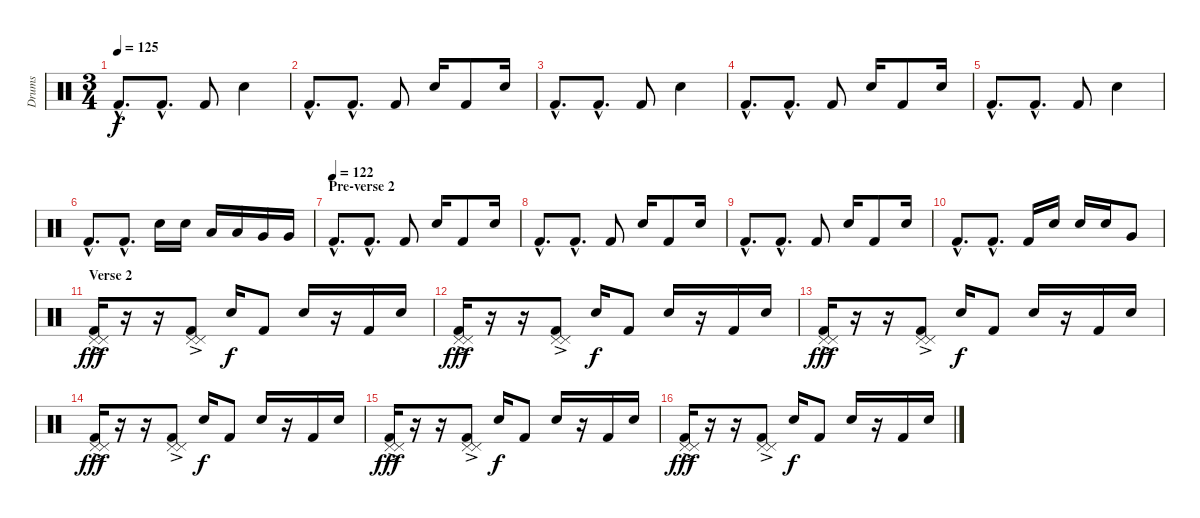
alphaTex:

\track ("Drums" "Drums") {instrument percussion}
\staff {score}
\articulation defaults
\ts (3 4)
\tempo 125
\clef neutral
\ks c "Kick (hit) 2"{hac}.8{d dy f} "Kick (hit) 2"{hac}.8{d} "Kick (hit) 2".8 "Electric Snare (hit)".4
|
"Kick (hit) 2"{hac}.8{d} "Kick (hit) 2"{hac}.8{d} "Kick (hit) 2".8 "Electric Snare (hit)".16 "Kick (hit) 2".8 "Electric Snare (hit)".16 |
"Kick (hit) 2"{hac}.8{d} "Kick (hit) 2"{hac}.8{d} "Kick (hit) 2".8 "Electric Snare (hit)".4 |
"Kick (hit) 2"{hac}.8{d} "Kick (hit) 2"{hac}.8{d} "Kick (hit) 2".8 "Electric Snare (hit)".16 "Kick (hit) 2".8 "Electric Snare (hit)".16 |
"Kick (hit) 2"{hac}.8{d} "Kick (hit) 2"{hac}.8{d} "Kick (hit) 2".8 "Electric Snare (hit)".4 |
"Kick (hit) 2"{hac}.8{d} "Kick (hit) 2"{hac}.8{d} "Electric Snare (hit)".16 "Electric Snare (hit)".16 "Low Tom (hit)".16 "Low Tom (hit)".16 "Very Low Tom (hit)".16 "Very Low Tom (hit)".16 |
\section ("" "Pre-verse 2")
\tempo (122)
"Kick (hit) 2"{hac}.8{d} "Kick (hit) 2"{hac}.8{d} "Kick (hit) 2".8 "Electric Snare (hit)".16 "Kick (hit) 2".8 "Electric Snare (hit)".16 |
"Kick (hit) 2"{hac}.8{d} "Kick (hit) 2"{hac}.8{d} "Kick (hit) 2".8 "Electric Snare (hit)".16 "Kick (hit) 2".8 "Electric Snare (hit)".16 |
"Kick (hit) 2"{hac}.8{d} "Kick (hit) 2"{hac}.8{d} "Kick (hit) 2".8 "Electric Snare (hit)".16 "Kick (hit) 2".8 "Electric Snare (hit)".16 |
"Kick (hit) 2"{hac}.8{d} "Kick (hit) 2"{hac}.8{d} "Kick (hit) 2".16 "Electric Snare (hit)".16 "Electric Snare (hit)".16 "Electric Snare (hit)".16 "Very Low Tom (hit)".8 |
\section ("" "Verse 2")
("Pedal Hi-Hat (hit)"{ac} "Pedal Hi-Hat (hit)"{ac} "Kick (hit) 2").16{dy fff} r.16 r.16 ("Pedal Hi-Hat (hit)"{ac} "Pedal Hi-Hat (hit)"{ac} "Kick (hit) 2").8 "Electric Snare (hit)".16{dy f} "Kick (hit) 2".8 "Electric Snare (hit)".16 r.16 "Kick (hit) 2".16 "Electric Snare (hit)".16 |
("Pedal Hi-Hat (hit)"{ac} "Pedal Hi-Hat (hit)"{ac} "Kick (hit) 2").16{dy fff} r.16 r.16 ("Pedal Hi-Hat (hit)"{ac} "Pedal Hi-Hat (hit)"{ac} "Kick (hit) 2").8 "Electric Snare (hit)".16{dy f} "Kick (hit) 2".8 "Electric Snare (hit)".16 r.16 "Kick (hit) 2".16 "Electric Snare (hit)".16 |
("Pedal Hi-Hat (hit)"{ac} "Pedal Hi-Hat (hit)"{ac} "Kick (hit) 2").16{dy fff} r.16 r.16 ("Pedal Hi-Hat (hit)"{ac} "Pedal Hi-Hat (hit)"{ac} "Kick (hit) 2").8 "Electric Snare (hit)".16{dy f} "Kick (hit) 2".8 "Electric Snare (hit)".16 r.16 "Kick (hit) 2".16 "Electric Snare (hit)".16 |
("Pedal Hi-Hat (hit)"{ac} "Pedal Hi-Hat (hit)"{ac} "Kick (hit) 2").16{dy fff} r.16 r.16 ("Pedal Hi-Hat (hit)"{ac} "Pedal Hi-Hat (hit)"{ac} "Kick (hit) 2").8 "Electric Snare (hit)".16{dy f} "Kick (hit) 2".8 "Electric Snare (hit)".16 r.16 "Kick (hit) 2".16 "Electric Snare (hit)".16 |
("Pedal Hi-Hat (hit)"{ac} "Pedal Hi-Hat (hit)"{ac} "Kick (hit) 2").16{dy fff} r.16 r.16 ("Pedal Hi-Hat (hit)"{ac} "Pedal Hi-Hat (hit)"{ac} "Kick (hit) 2").8 "Electric Snare (hit)".16{dy f} "Kick (hit) 2".8 "Electric Snare (hit)".16 r.16 "Kick (hit) 2".16 "Electric Snare (hit)".16 |
("Pedal Hi-Hat (hit)"{ac} "Pedal Hi-Hat (hit)"{ac} "Kick (hit) 2").16{dy fff} r.16 r.16 ("Pedal Hi-Hat (hit)"{ac} "Pedal Hi-Hat (hit)"{ac} "Kick (hit) 2").8 "Electric Snare (hit)".16{dy f} "Kick (hit) 2".8 "Electric Snare (hit)".16 r.16 "Kick (hit) 2".16 "Electric Snare (hit)".16
